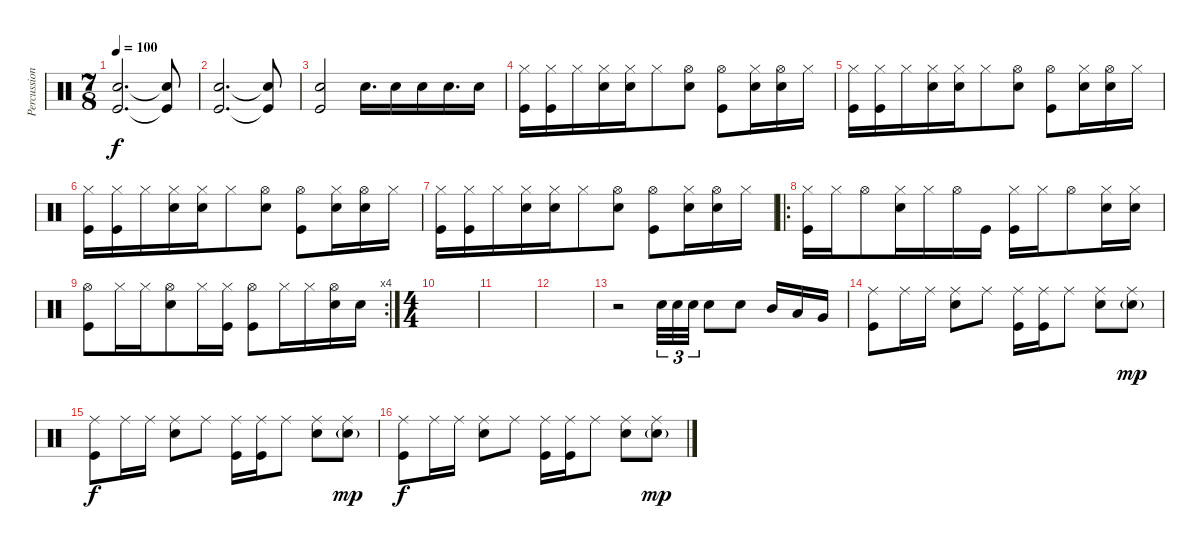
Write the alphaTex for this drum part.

\track ("Percussion" "Percussion") {instrument percussion}
\staff {score}
\articulation defaults
\ts (7 8)
\tempo 100
\clef neutral
\ks c
("Snare (hit) 2" "Kick (hit)").2{d dy f} ("Snare (hit) 2"{t} "Kick (hit)"{t}).8 |
("Snare (hit) 2" "Kick (hit)").2{d} ("Snare (hit) 2"{t} "Kick (hit)"{t}).8 |
("Snare (hit) 2" "Kick (hit)").2 "Snare (hit) 2".16{d} "Snare (hit) 2".16 "Snare (hit) 2".16 "Snare (hit) 2".16{d} "Snare (hit) 2".16 |
("Hi-Hat (closed)" "Kick (hit)").16 ("Hi-Hat (closed)" "Kick (hit)").16 "Hi-Hat (closed)".16 ("Hi-Hat (closed)" "Snare (hit) 2").16 ("Hi-Hat (closed)" "Snare (hit) 2").16 "Hi-Hat (closed)".8 ("Hi-Hat (open)" "Snare (hit) 2").8 ("Hi-Hat (open)" "Kick (hit)").8 ("Hi-Hat (closed)" "Snare (hit) 2").16 ("Hi-Hat (open)" "Snare (hit) 2").16 "Hi-Hat (closed)".16 |
("Hi-Hat (closed)" "Kick (hit)").16 ("Hi-Hat (closed)" "Kick (hit)").16 "Hi-Hat (closed)".16 ("Hi-Hat (closed)" "Snare (hit) 2").16 ("Hi-Hat (closed)" "Snare (hit) 2").16 "Hi-Hat (closed)".8 ("Hi-Hat (open)" "Snare (hit) 2").8 ("Hi-Hat (open)" "Kick (hit)").8 ("Hi-Hat (closed)" "Snare (hit) 2").16 ("Hi-Hat (open)" "Snare (hit) 2").16 "Hi-Hat (closed)".16 |
("Hi-Hat (closed)" "Kick (hit)").16 ("Hi-Hat (closed)" "Kick (hit)").16 "Hi-Hat (closed)".16 ("Hi-Hat (closed)" "Snare (hit) 2").16 ("Hi-Hat (closed)" "Snare (hit) 2").16 "Hi-Hat (closed)".8 ("Hi-Hat (open)" "Snare (hit) 2").8 ("Hi-Hat (open)" "Kick (hit)").8 ("Hi-Hat (closed)" "Snare (hit) 2").16 ("Hi-Hat (open)" "Snare (hit) 2").16 "Hi-Hat (closed)".16 |
("Hi-Hat (closed)" "Kick (hit)").16 ("Hi-Hat (closed)" "Kick (hit)").16 "Hi-Hat (closed)".16 ("Hi-Hat (closed)" "Snare (hit) 2").16 ("Hi-Hat (closed)" "Snare (hit) 2").16 "Hi-Hat (closed)".8 ("Hi-Hat (open)" "Snare (hit) 2").8 ("Hi-Hat (open)" "Kick (hit)").8 ("Hi-Hat (closed)" "Snare (hit) 2").16 ("Hi-Hat (open)" "Snare (hit) 2").16 "Hi-Hat (closed)".16 |
\ro
("Hi-Hat (closed)" "Kick (hit)").16 "Hi-Hat (closed)".16 "Hi-Hat (open)".8 ("Hi-Hat (closed)" "Snare (hit) 2").16 "Hi-Hat (closed)".16 "Hi-Hat (open)".16 "Kick (hit)".16 ("Hi-Hat (closed)" "Kick (hit)").16 "Hi-Hat (closed)".16 "Hi-Hat (open)".8 ("Hi-Hat (closed)" "Snare (hit) 2").16 ("Hi-Hat (closed)" "Snare (hit) 2").16 |
\rc 4
("Hi-Hat (open)" "Kick (hit)").8 "Hi-Hat (closed)".16 "Hi-Hat (closed)".16 ("Hi-Hat (open)" "Snare (hit) 2").8 "Hi-Hat (closed)".16 ("Hi-Hat (closed)" "Kick (hit)").16 ("Hi-Hat (open)" "Kick (hit)").8 "Hi-Hat (closed)".16 "Hi-Hat (closed)".16 ("Hi-Hat (open)" "Snare (hit) 2").16 "Snare (hit) 2".16 |
\ts (4 4)
|
|
|
r.2 "Snare (hit) 2".32{tu (3 2)} "Snare (hit) 2".32{tu (3 2)} "Snare (hit) 2".32{tu (3 2)} "Snare (hit) 2".8 "Snare (hit) 2".8 "Mid Tom (hit)".16 "Low Tom (hit)".16 "Very Low Tom (hit)".16 |
("Ride (middle)" "Kick (hit)").8 "Ride (middle)".16 "Ride (middle)".16 ("Ride (middle)" "Snare (hit) 2").8 "Ride (middle)".8 ("Ride (middle)" "Kick (hit)").16 ("Ride (middle)" "Kick (hit)").16 "Ride (middle)".8 ("Ride (middle)" "Snare (hit) 2").8 ("Ride (middle)" "Snare (hit) 2"{g}).8{dy mp} |
("Ride (middle)" "Kick (hit)").8{dy f} "Ride (middle)".16 "Ride (middle)".16 ("Ride (middle)" "Snare (hit) 2").8 "Ride (middle)".8 ("Ride (middle)" "Kick (hit)").16 ("Ride (middle)" "Kick (hit)").16 "Ride (middle)".8 ("Ride (middle)" "Snare (hit) 2").8 ("Ride (middle)" "Snare (hit) 2"{g}).8{dy mp} |
("Ride (middle)" "Kick (hit)").8{dy f} "Ride (middle)".16 "Ride (middle)".16 ("Ride (middle)" "Snare (hit) 2").8 "Ride (middle)".8 ("Ride (middle)" "Kick (hit)").16 ("Ride (middle)" "Kick (hit)").16 "Ride (middle)".8 ("Ride (middle)" "Snare (hit) 2").8 ("Ride (middle)" "Snare (hit) 2"{g}).8{dy mp}
